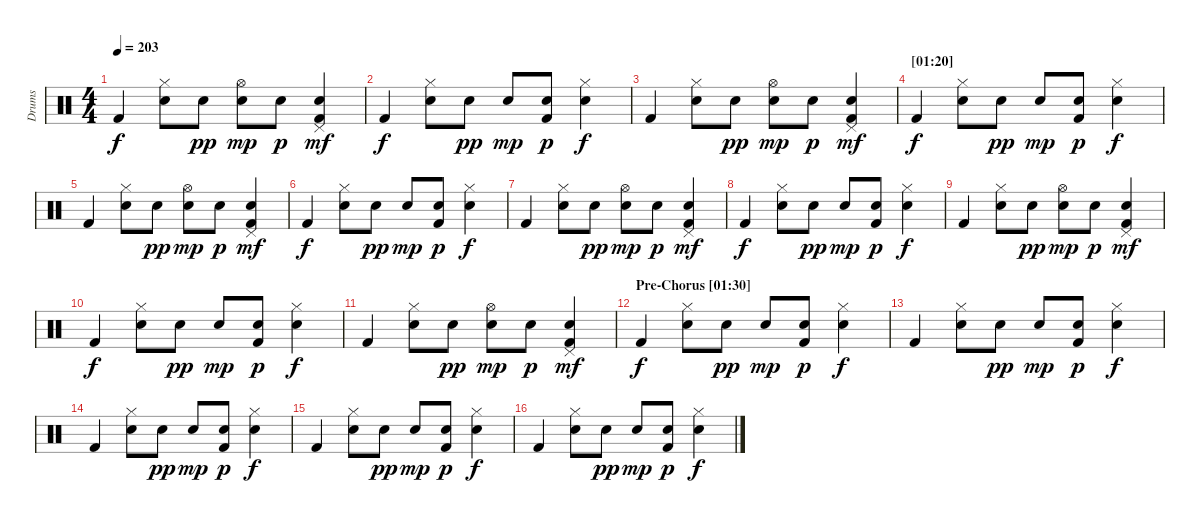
\track ("Drums" "Drums") {instrument percussion}
\staff {score}
\articulation defaults
\ts (4 4)
\tempo 203
\clef neutral
\ks c "Kick (hit) 2".4{dy f}
("Hi-Hat (closed)" "Electric Snare (hit)").8 "Snare (hit) 2".8{dy pp} ("Hi-Hat (open)" "Snare (hit) 2").8{dy mp} "Snare (hit) 2".8{dy p} ("Pedal Hi-Hat (hit)" "Electric Snare (hit)" "Kick (hit) 2").4{dy mf} |
"Kick (hit) 2".4{dy f} ("Hi-Hat (closed)" "Electric Snare (hit)").8 "Snare (hit) 2".8{dy pp} "Snare (hit) 2".8{dy mp} ("Snare (hit) 2" "Kick (hit) 2").8{dy p} ("Hi-Hat (closed)" "Electric Snare (hit)").4{dy f} |
"Kick (hit) 2".4 ("Hi-Hat (closed)" "Electric Snare (hit)").8 "Snare (hit) 2".8{dy pp} ("Hi-Hat (open)" "Snare (hit) 2").8{dy mp} "Snare (hit) 2".8{dy p} ("Pedal Hi-Hat (hit)" "Electric Snare (hit)" "Kick (hit) 2").4{dy mf} |
\section ("" "[01:20]")
"Kick (hit) 2".4{dy f} ("Hi-Hat (closed)" "Electric Snare (hit)").8 "Snare (hit) 2".8{dy pp} "Snare (hit) 2".8{dy mp} ("Snare (hit) 2" "Kick (hit) 2").8{dy p} ("Hi-Hat (closed)" "Electric Snare (hit)").4{dy f} |
"Kick (hit) 2".4 ("Hi-Hat (closed)" "Electric Snare (hit)").8 "Snare (hit) 2".8{dy pp} ("Hi-Hat (open)" "Snare (hit) 2").8{dy mp} "Snare (hit) 2".8{dy p} ("Pedal Hi-Hat (hit)" "Electric Snare (hit)" "Kick (hit) 2").4{dy mf} |
"Kick (hit) 2".4{dy f} ("Hi-Hat (closed)" "Electric Snare (hit)").8 "Snare (hit) 2".8{dy pp} "Snare (hit) 2".8{dy mp} ("Snare (hit) 2" "Kick (hit) 2").8{dy p} ("Hi-Hat (closed)" "Electric Snare (hit)").4{dy f} |
"Kick (hit) 2".4 ("Hi-Hat (closed)" "Electric Snare (hit)").8 "Snare (hit) 2".8{dy pp} ("Hi-Hat (open)" "Snare (hit) 2").8{dy mp} "Snare (hit) 2".8{dy p} ("Pedal Hi-Hat (hit)" "Electric Snare (hit)" "Kick (hit) 2").4{dy mf} |
"Kick (hit) 2".4{dy f} ("Hi-Hat (closed)" "Electric Snare (hit)").8 "Snare (hit) 2".8{dy pp} "Snare (hit) 2".8{dy mp} ("Snare (hit) 2" "Kick (hit) 2").8{dy p} ("Hi-Hat (closed)" "Electric Snare (hit)").4{dy f} |
"Kick (hit) 2".4 ("Hi-Hat (closed)" "Electric Snare (hit)").8 "Snare (hit) 2".8{dy pp} ("Hi-Hat (open)" "Snare (hit) 2").8{dy mp} "Snare (hit) 2".8{dy p} ("Pedal Hi-Hat (hit)" "Electric Snare (hit)" "Kick (hit) 2").4{dy mf} |
"Kick (hit) 2".4{dy f} ("Hi-Hat (closed)" "Electric Snare (hit)").8 "Snare (hit) 2".8{dy pp} "Snare (hit) 2".8{dy mp} ("Snare (hit) 2" "Kick (hit) 2").8{dy p} ("Hi-Hat (closed)" "Electric Snare (hit)").4{dy f} |
"Kick (hit) 2".4 ("Hi-Hat (closed)" "Electric Snare (hit)").8 "Snare (hit) 2".8{dy pp} ("Hi-Hat (open)" "Snare (hit) 2").8{dy mp} "Snare (hit) 2".8{dy p} ("Pedal Hi-Hat (hit)" "Electric Snare (hit)" "Kick (hit) 2").4{dy mf} |
\section ("" "Pre-Chorus [01:30]")
"Kick (hit) 2".4{dy f} ("Hi-Hat (closed)" "Electric Snare (hit)").8 "Snare (hit) 2".8{dy pp} "Snare (hit) 2".8{dy mp} ("Snare (hit) 2" "Kick (hit) 2").8{dy p} ("Hi-Hat (closed)" "Electric Snare (hit)").4{dy f} |
"Kick (hit) 2".4 ("Hi-Hat (closed)" "Electric Snare (hit)").8 "Snare (hit) 2".8{dy pp} "Snare (hit) 2".8{dy mp} ("Snare (hit) 2" "Kick (hit) 2").8{dy p} ("Hi-Hat (closed)" "Electric Snare (hit)").4{dy f} |
"Kick (hit) 2".4 ("Hi-Hat (closed)" "Electric Snare (hit)").8 "Snare (hit) 2".8{dy pp} "Snare (hit) 2".8{dy mp} ("Snare (hit) 2" "Kick (hit) 2").8{dy p} ("Hi-Hat (closed)" "Electric Snare (hit)").4{dy f} |
"Kick (hit) 2".4 ("Hi-Hat (closed)" "Electric Snare (hit)").8 "Snare (hit) 2".8{dy pp} "Snare (hit) 2".8{dy mp} ("Snare (hit) 2" "Kick (hit) 2").8{dy p} ("Hi-Hat (closed)" "Electric Snare (hit)").4{dy f} |
"Kick (hit) 2".4 ("Hi-Hat (closed)" "Electric Snare (hit)").8 "Snare (hit) 2".8{dy pp} "Snare (hit) 2".8{dy mp} ("Snare (hit) 2" "Kick (hit) 2").8{dy p} ("Hi-Hat (closed)" "Electric Snare (hit)").4{dy f}
